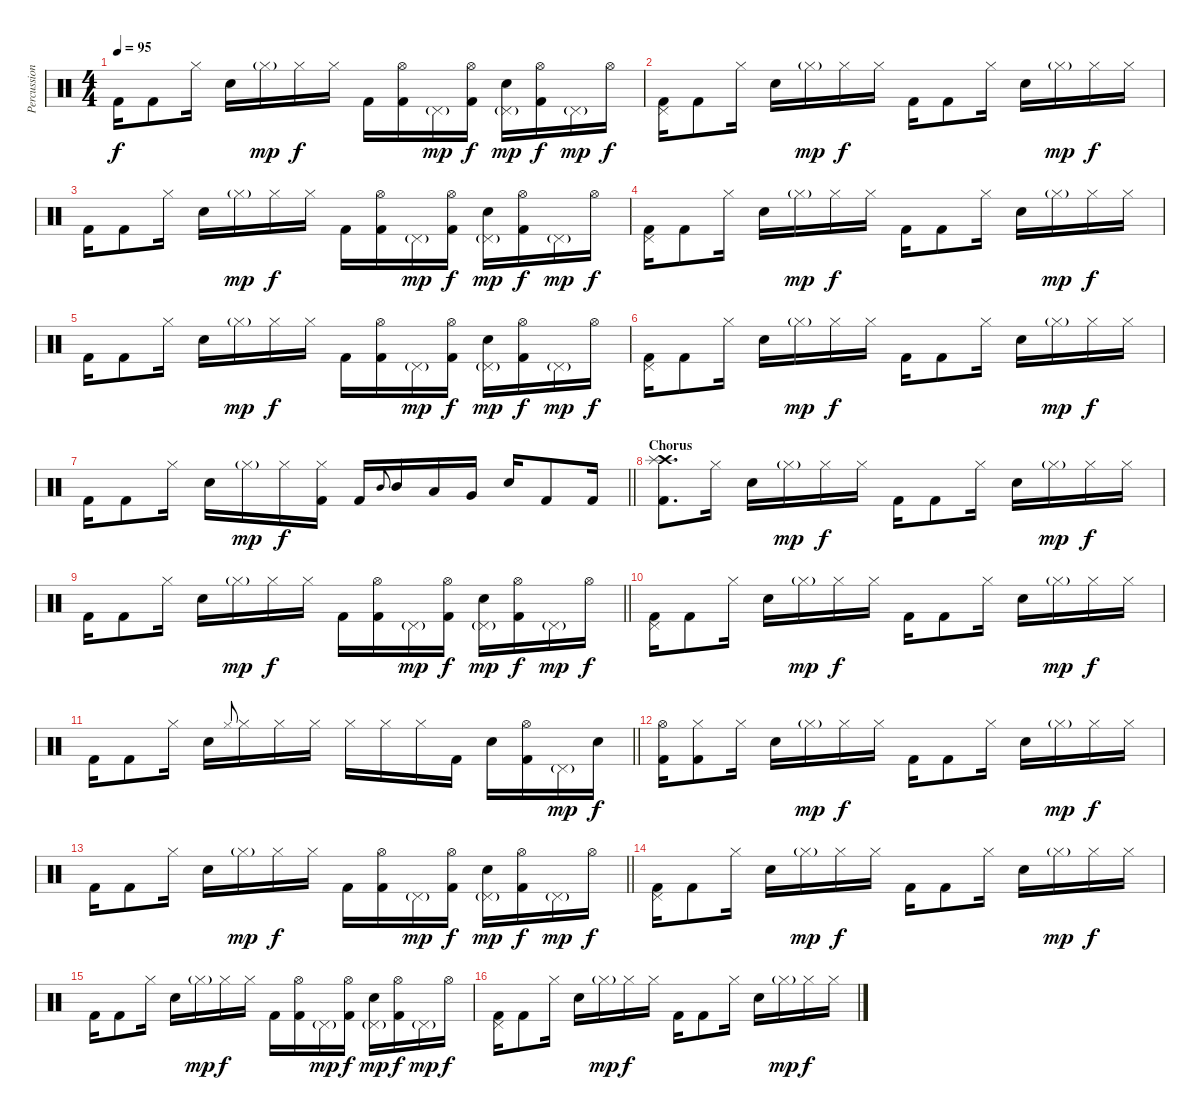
\track ("Percussion" "Percussion") {instrument percussion}
\staff {score}
\articulation defaults
\ts (4 4)
\tempo 95
\clef neutral
\ks c "Kick (hit) 2".16{dy f} "Kick (hit) 2".8 "Hi-Hat (closed)".16 "Electric Snare (hit)".16 "Hi-Hat (closed)"{g}.16{dy mp} "Hi-Hat (closed)".16{dy f} "Hi-Hat (closed)".16 "Kick (hit) 2".16
("Hi-Hat (open)" "Kick (hit) 2").16 "Pedal Hi-Hat (hit)"{g}.16{dy mp} ("Hi-Hat (open)" "Kick (hit) 2").16{dy f} ("Pedal Hi-Hat (hit)"{g} "Electric Snare (hit)").16{dy mp} ("Hi-Hat (open)" "Kick (hit) 2").16{dy f} "Pedal Hi-Hat (hit)"{g}.16{dy mp} "Hi-Hat (open)".16{dy f} |
("Pedal Hi-Hat (hit)" "Kick (hit) 2").16 "Kick (hit) 2".8 "Hi-Hat (closed)".16 "Electric Snare (hit)".16 "Hi-Hat (closed)"{g}.16{dy mp} "Hi-Hat (closed)".16{dy f} "Hi-Hat (closed)".16 "Kick (hit) 2".16 "Kick (hit) 2".8 "Hi-Hat (closed)".16 "Electric Snare (hit)".16 "Hi-Hat (closed)"{g}.16{dy mp} "Hi-Hat (closed)".16{dy f} "Hi-Hat (closed)".16 |
"Kick (hit) 2".16 "Kick (hit) 2".8 "Hi-Hat (closed)".16 "Electric Snare (hit)".16 "Hi-Hat (closed)"{g}.16{dy mp} "Hi-Hat (closed)".16{dy f} "Hi-Hat (closed)".16 "Kick (hit) 2".16 ("Hi-Hat (open)" "Kick (hit) 2").16 "Pedal Hi-Hat (hit)"{g}.16{dy mp} ("Hi-Hat (open)" "Kick (hit) 2").16{dy f} ("Pedal Hi-Hat (hit)"{g} "Electric Snare (hit)").16{dy mp} ("Hi-Hat (open)" "Kick (hit) 2").16{dy f} "Pedal Hi-Hat (hit)"{g}.16{dy mp} "Hi-Hat (open)".16{dy f} |
("Pedal Hi-Hat (hit)" "Kick (hit) 2").16 "Kick (hit) 2".8 "Hi-Hat (closed)".16 "Electric Snare (hit)".16 "Hi-Hat (closed)"{g}.16{dy mp} "Hi-Hat (closed)".16{dy f} "Hi-Hat (closed)".16 "Kick (hit) 2".16 "Kick (hit) 2".8 "Hi-Hat (closed)".16 "Electric Snare (hit)".16 "Hi-Hat (closed)"{g}.16{dy mp} "Hi-Hat (closed)".16{dy f} "Hi-Hat (closed)".16 |
"Kick (hit) 2".16 "Kick (hit) 2".8 "Hi-Hat (closed)".16 "Electric Snare (hit)".16 "Hi-Hat (closed)"{g}.16{dy mp} "Hi-Hat (closed)".16{dy f} "Hi-Hat (closed)".16 "Kick (hit) 2".16 ("Hi-Hat (open)" "Kick (hit) 2").16 "Pedal Hi-Hat (hit)"{g}.16{dy mp} ("Hi-Hat (open)" "Kick (hit) 2").16{dy f} ("Pedal Hi-Hat (hit)"{g} "Electric Snare (hit)").16{dy mp} ("Hi-Hat (open)" "Kick (hit) 2").16{dy f} "Pedal Hi-Hat (hit)"{g}.16{dy mp} "Hi-Hat (open)".16{dy f} |
("Pedal Hi-Hat (hit)" "Kick (hit) 2").16 "Kick (hit) 2".8 "Hi-Hat (closed)".16 "Electric Snare (hit)".16 "Hi-Hat (closed)"{g}.16{dy mp} "Hi-Hat (closed)".16{dy f} "Hi-Hat (closed)".16 "Kick (hit) 2".16 "Kick (hit) 2".8 "Hi-Hat (closed)".16 "Electric Snare (hit)".16 "Hi-Hat (closed)"{g}.16{dy mp} "Hi-Hat (closed)".16{dy f} "Hi-Hat (closed)".16 |
\barLineRight lightlight "Kick (hit) 2".16 "Kick (hit) 2".8 "Hi-Hat (closed)".16 "Electric Snare (hit)".16 "Hi-Hat (closed)"{g}.16{dy mp} "Hi-Hat (closed)".16{dy f}
("Hi-Hat (closed)" "Kick (hit) 2").16 "Kick (hit) 2".16 "Mid Tom (hit)".8{gr onbeat} "Mid Tom (hit)".16 "Low Tom (hit)".16 "Very Low Tom (hit)".16 "Electric Snare (hit)".16 "Kick (hit) 2".8 "Kick (hit) 2".16 |
\section ("" "Chorus")
("Crash high (hit)" "Splash (hit)" "Kick (hit) 2").8{d} "Hi-Hat (closed)".16 "Electric Snare (hit)".16 "Hi-Hat (closed)"{g}.16{dy mp} "Hi-Hat (closed)".16{dy f} "Hi-Hat (closed)".16 "Kick (hit) 2".16 "Kick (hit) 2".8 "Hi-Hat (closed)".16 "Electric Snare (hit)".16 "Hi-Hat (closed)"{g}.16{dy mp} "Hi-Hat (closed)".16{dy f} "Hi-Hat (closed)".16 |
\barLineRight lightlight "Kick (hit) 2".16 "Kick (hit) 2".8 "Hi-Hat (closed)".16 "Electric Snare (hit)".16 "Hi-Hat (closed)"{g}.16{dy mp} "Hi-Hat (closed)".16{dy f} "Hi-Hat (closed)".16 "Kick (hit) 2".16
("Hi-Hat (open)" "Kick (hit) 2").16 "Pedal Hi-Hat (hit)"{g}.16{dy mp} ("Hi-Hat (open)" "Kick (hit) 2").16{dy f} ("Pedal Hi-Hat (hit)"{g} "Electric Snare (hit)").16{dy mp} ("Hi-Hat (open)" "Kick (hit) 2").16{dy f} "Pedal Hi-Hat (hit)"{g}.16{dy mp} "Hi-Hat (open)".16{dy f} |
("Pedal Hi-Hat (hit)" "Kick (hit) 2").16 "Kick (hit) 2".8 "Hi-Hat (closed)".16 "Electric Snare (hit)".16 "Hi-Hat (closed)"{g}.16{dy mp} "Hi-Hat (closed)".16{dy f} "Hi-Hat (closed)".16 "Kick (hit) 2".16 "Kick (hit) 2".8 "Hi-Hat (closed)".16 "Electric Snare (hit)".16 "Hi-Hat (closed)"{g}.16{dy mp} "Hi-Hat (closed)".16{dy f} "Hi-Hat (closed)".16 |
\barLineRight lightlight "Kick (hit) 2".16 "Kick (hit) 2".8 "Hi-Hat (closed)".16 "Electric Snare (hit)".16 "Hi-Hat (closed)".8{gr onbeat} "Hi-Hat (closed)".16 "Hi-Hat (closed)".16 "Hi-Hat (closed)".16 "Hi-Hat (closed)".16 "Hi-Hat (closed)".16 "Hi-Hat (closed)".16 "Kick (hit) 2".16 "Electric Snare (hit)".16
("Hi-Hat (open)" "Kick (hit) 2").16 "Pedal Hi-Hat (hit)"{g}.16{dy mp} "Electric Snare (hit)".16{dy f} |
("Hi-Hat (open)" "Kick (hit) 2").16 ("Hi-Hat (closed)" "Kick (hit) 2").8 "Hi-Hat (closed)".16 "Electric Snare (hit)".16 "Hi-Hat (closed)"{g}.16{dy mp} "Hi-Hat (closed)".16{dy f} "Hi-Hat (closed)".16 "Kick (hit) 2".16 "Kick (hit) 2".8 "Hi-Hat (closed)".16 "Electric Snare (hit)".16 "Hi-Hat (closed)"{g}.16{dy mp} "Hi-Hat (closed)".16{dy f} "Hi-Hat (closed)".16 |
\barLineRight lightlight "Kick (hit) 2".16 "Kick (hit) 2".8 "Hi-Hat (closed)".16 "Electric Snare (hit)".16 "Hi-Hat (closed)"{g}.16{dy mp} "Hi-Hat (closed)".16{dy f} "Hi-Hat (closed)".16 "Kick (hit) 2".16
("Hi-Hat (open)" "Kick (hit) 2").16 "Pedal Hi-Hat (hit)"{g}.16{dy mp} ("Hi-Hat (open)" "Kick (hit) 2").16{dy f} ("Pedal Hi-Hat (hit)"{g} "Electric Snare (hit)").16{dy mp} ("Hi-Hat (open)" "Kick (hit) 2").16{dy f} "Pedal Hi-Hat (hit)"{g}.16{dy mp} "Hi-Hat (open)".16{dy f} |
("Pedal Hi-Hat (hit)" "Kick (hit) 2").16 "Kick (hit) 2".8 "Hi-Hat (closed)".16 "Electric Snare (hit)".16 "Hi-Hat (closed)"{g}.16{dy mp} "Hi-Hat (closed)".16{dy f} "Hi-Hat (closed)".16 "Kick (hit) 2".16 "Kick (hit) 2".8 "Hi-Hat (closed)".16 "Electric Snare (hit)".16 "Hi-Hat (closed)"{g}.16{dy mp} "Hi-Hat (closed)".16{dy f} "Hi-Hat (closed)".16 |
"Kick (hit) 2".16 "Kick (hit) 2".8 "Hi-Hat (closed)".16 "Electric Snare (hit)".16 "Hi-Hat (closed)"{g}.16{dy mp} "Hi-Hat (closed)".16{dy f} "Hi-Hat (closed)".16 "Kick (hit) 2".16 ("Hi-Hat (open)" "Kick (hit) 2").16 "Pedal Hi-Hat (hit)"{g}.16{dy mp} ("Hi-Hat (open)" "Kick (hit) 2").16{dy f} ("Pedal Hi-Hat (hit)"{g} "Electric Snare (hit)").16{dy mp} ("Hi-Hat (open)" "Kick (hit) 2").16{dy f} "Pedal Hi-Hat (hit)"{g}.16{dy mp} "Hi-Hat (open)".16{dy f} |
("Pedal Hi-Hat (hit)" "Kick (hit) 2").16 "Kick (hit) 2".8 "Hi-Hat (closed)".16 "Electric Snare (hit)".16 "Hi-Hat (closed)"{g}.16{dy mp} "Hi-Hat (closed)".16{dy f} "Hi-Hat (closed)".16 "Kick (hit) 2".16 "Kick (hit) 2".8 "Hi-Hat (closed)".16 "Electric Snare (hit)".16 "Hi-Hat (closed)"{g}.16{dy mp} "Hi-Hat (closed)".16{dy f} "Hi-Hat (closed)".16
